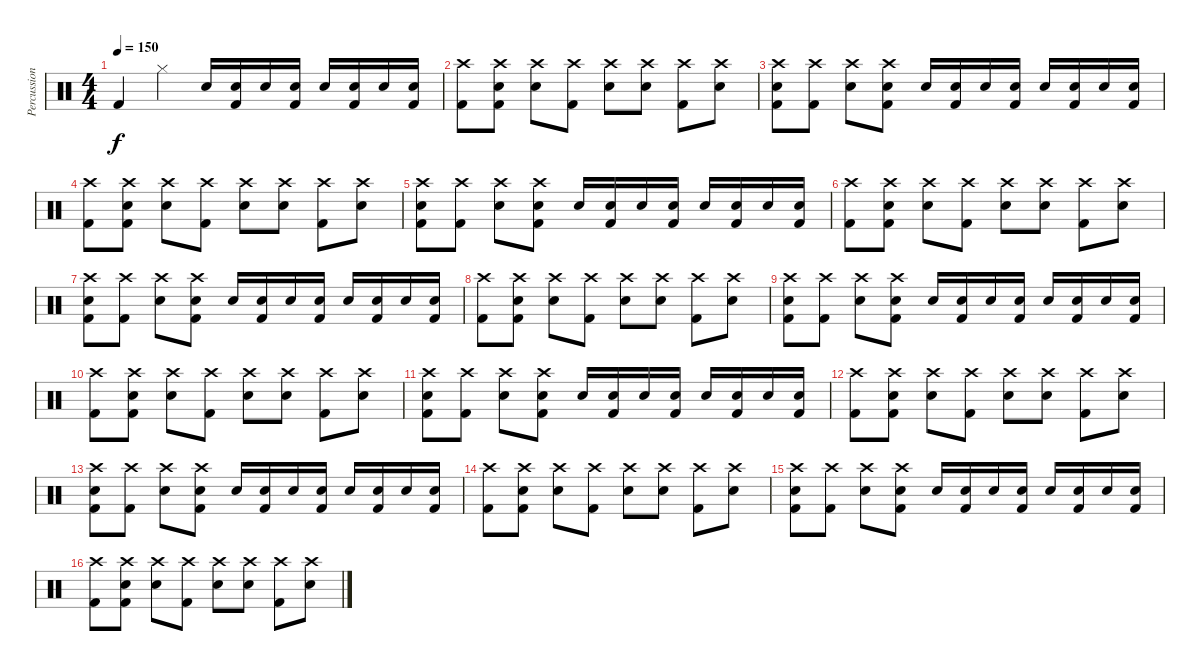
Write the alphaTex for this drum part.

\track ("Percussion" "Percussion") {instrument percussion}
\staff {score}
\articulation defaults
\ts (4 4)
\tempo 150
\clef neutral
\ks c "Kick (hit) 2".4{dy f} "Hi-Hat (closed)".4 "Electric Snare (hit)".16
("Electric Snare (hit)" "Kick (hit) 2").16 "Electric Snare (hit)".16 ("Electric Snare (hit)" "Kick (hit) 2").16 "Electric Snare (hit)".16 ("Electric Snare (hit)" "Kick (hit) 2").16 "Electric Snare (hit)".16 ("Electric Snare (hit)" "Kick (hit) 2").16 |
("Crash high (hit)" "Kick (hit) 2").8 ("Crash high (hit)" "Snare (hit) 2" "Kick (hit) 2").8 ("Crash high (hit)" "Electric Snare (hit)").8 ("Crash high (hit)" "Kick (hit) 2").8 ("Crash high (hit)" "Snare (hit) 2").8 ("Crash high (hit)" "Electric Snare (hit)").8 ("Crash high (hit)" "Kick (hit) 2").8 ("Crash high (hit)" "Snare (hit) 2").8 |
("Crash high (hit)" "Electric Snare (hit)" "Kick (hit) 2").8 ("Crash high (hit)" "Kick (hit) 2").8 ("Crash high (hit)" "Snare (hit) 2").8 ("Crash high (hit)" "Electric Snare (hit)" "Kick (hit) 2").8 "Electric Snare (hit)".16 ("Electric Snare (hit)" "Kick (hit) 2").16 "Electric Snare (hit)".16 ("Electric Snare (hit)" "Kick (hit) 2").16 "Electric Snare (hit)".16 ("Electric Snare (hit)" "Kick (hit) 2").16 "Electric Snare (hit)".16 ("Electric Snare (hit)" "Kick (hit) 2").16 |
("Crash high (hit)" "Kick (hit) 2").8 ("Crash high (hit)" "Snare (hit) 2" "Kick (hit) 2").8 ("Crash high (hit)" "Electric Snare (hit)").8 ("Crash high (hit)" "Kick (hit) 2").8 ("Crash high (hit)" "Snare (hit) 2").8 ("Crash high (hit)" "Electric Snare (hit)").8 ("Crash high (hit)" "Kick (hit) 2").8 ("Crash high (hit)" "Snare (hit) 2").8 |
("Crash high (hit)" "Electric Snare (hit)" "Kick (hit) 2").8 ("Crash high (hit)" "Kick (hit) 2").8 ("Crash high (hit)" "Snare (hit) 2").8 ("Crash high (hit)" "Electric Snare (hit)" "Kick (hit) 2").8 "Electric Snare (hit)".16 ("Electric Snare (hit)" "Kick (hit) 2").16 "Electric Snare (hit)".16 ("Electric Snare (hit)" "Kick (hit) 2").16 "Electric Snare (hit)".16 ("Electric Snare (hit)" "Kick (hit) 2").16 "Electric Snare (hit)".16 ("Electric Snare (hit)" "Kick (hit) 2").16 |
("Crash high (hit)" "Kick (hit) 2").8 ("Crash high (hit)" "Snare (hit) 2" "Kick (hit) 2").8 ("Crash high (hit)" "Electric Snare (hit)").8 ("Crash high (hit)" "Kick (hit) 2").8 ("Crash high (hit)" "Snare (hit) 2").8 ("Crash high (hit)" "Electric Snare (hit)").8 ("Crash high (hit)" "Kick (hit) 2").8 ("Crash high (hit)" "Snare (hit) 2").8 |
("Crash high (hit)" "Electric Snare (hit)" "Kick (hit) 2").8 ("Crash high (hit)" "Kick (hit) 2").8 ("Crash high (hit)" "Snare (hit) 2").8 ("Crash high (hit)" "Electric Snare (hit)" "Kick (hit) 2").8 "Electric Snare (hit)".16 ("Electric Snare (hit)" "Kick (hit) 2").16 "Electric Snare (hit)".16 ("Electric Snare (hit)" "Kick (hit) 2").16 "Electric Snare (hit)".16 ("Electric Snare (hit)" "Kick (hit) 2").16 "Electric Snare (hit)".16 ("Electric Snare (hit)" "Kick (hit) 2").16 |
("Crash high (hit)" "Kick (hit) 2").8 ("Crash high (hit)" "Snare (hit) 2" "Kick (hit) 2").8 ("Crash high (hit)" "Electric Snare (hit)").8 ("Crash high (hit)" "Kick (hit) 2").8 ("Crash high (hit)" "Snare (hit) 2").8 ("Crash high (hit)" "Electric Snare (hit)").8 ("Crash high (hit)" "Kick (hit) 2").8 ("Crash high (hit)" "Snare (hit) 2").8 |
("Crash high (hit)" "Electric Snare (hit)" "Kick (hit) 2").8 ("Crash high (hit)" "Kick (hit) 2").8 ("Crash high (hit)" "Snare (hit) 2").8 ("Crash high (hit)" "Electric Snare (hit)" "Kick (hit) 2").8 "Electric Snare (hit)".16 ("Electric Snare (hit)" "Kick (hit) 2").16 "Electric Snare (hit)".16 ("Electric Snare (hit)" "Kick (hit) 2").16 "Electric Snare (hit)".16 ("Electric Snare (hit)" "Kick (hit) 2").16 "Electric Snare (hit)".16 ("Electric Snare (hit)" "Kick (hit) 2").16 |
("Crash high (hit)" "Kick (hit) 2").8 ("Crash high (hit)" "Snare (hit) 2" "Kick (hit) 2").8 ("Crash high (hit)" "Electric Snare (hit)").8 ("Crash high (hit)" "Kick (hit) 2").8 ("Crash high (hit)" "Snare (hit) 2").8 ("Crash high (hit)" "Electric Snare (hit)").8 ("Crash high (hit)" "Kick (hit) 2").8 ("Crash high (hit)" "Snare (hit) 2").8 |
("Crash high (hit)" "Electric Snare (hit)" "Kick (hit) 2").8 ("Crash high (hit)" "Kick (hit) 2").8 ("Crash high (hit)" "Snare (hit) 2").8 ("Crash high (hit)" "Electric Snare (hit)" "Kick (hit) 2").8 "Electric Snare (hit)".16 ("Electric Snare (hit)" "Kick (hit) 2").16 "Electric Snare (hit)".16 ("Electric Snare (hit)" "Kick (hit) 2").16 "Electric Snare (hit)".16 ("Electric Snare (hit)" "Kick (hit) 2").16 "Electric Snare (hit)".16 ("Electric Snare (hit)" "Kick (hit) 2").16 |
("Crash high (hit)" "Kick (hit) 2").8 ("Crash high (hit)" "Snare (hit) 2" "Kick (hit) 2").8 ("Crash high (hit)" "Electric Snare (hit)").8 ("Crash high (hit)" "Kick (hit) 2").8 ("Crash high (hit)" "Snare (hit) 2").8 ("Crash high (hit)" "Electric Snare (hit)").8 ("Crash high (hit)" "Kick (hit) 2").8 ("Crash high (hit)" "Snare (hit) 2").8 |
("Crash high (hit)" "Electric Snare (hit)" "Kick (hit) 2").8 ("Crash high (hit)" "Kick (hit) 2").8 ("Crash high (hit)" "Snare (hit) 2").8 ("Crash high (hit)" "Electric Snare (hit)" "Kick (hit) 2").8 "Electric Snare (hit)".16 ("Electric Snare (hit)" "Kick (hit) 2").16 "Electric Snare (hit)".16 ("Electric Snare (hit)" "Kick (hit) 2").16 "Electric Snare (hit)".16 ("Electric Snare (hit)" "Kick (hit) 2").16 "Electric Snare (hit)".16 ("Electric Snare (hit)" "Kick (hit) 2").16 |
("Crash high (hit)" "Kick (hit) 2").8 ("Crash high (hit)" "Snare (hit) 2" "Kick (hit) 2").8 ("Crash high (hit)" "Electric Snare (hit)").8 ("Crash high (hit)" "Kick (hit) 2").8 ("Crash high (hit)" "Snare (hit) 2").8 ("Crash high (hit)" "Electric Snare (hit)").8 ("Crash high (hit)" "Kick (hit) 2").8 ("Crash high (hit)" "Snare (hit) 2").8 |
("Crash high (hit)" "Electric Snare (hit)" "Kick (hit) 2").8 ("Crash high (hit)" "Kick (hit) 2").8 ("Crash high (hit)" "Snare (hit) 2").8 ("Crash high (hit)" "Electric Snare (hit)" "Kick (hit) 2").8 "Electric Snare (hit)".16 ("Electric Snare (hit)" "Kick (hit) 2").16 "Electric Snare (hit)".16 ("Electric Snare (hit)" "Kick (hit) 2").16 "Electric Snare (hit)".16 ("Electric Snare (hit)" "Kick (hit) 2").16 "Electric Snare (hit)".16 ("Electric Snare (hit)" "Kick (hit) 2").16 |
("Crash high (hit)" "Kick (hit) 2").8 ("Crash high (hit)" "Snare (hit) 2" "Kick (hit) 2").8 ("Crash high (hit)" "Electric Snare (hit)").8 ("Crash high (hit)" "Kick (hit) 2").8 ("Crash high (hit)" "Snare (hit) 2").8 ("Crash high (hit)" "Electric Snare (hit)").8 ("Crash high (hit)" "Kick (hit) 2").8 ("Crash high (hit)" "Snare (hit) 2").8
